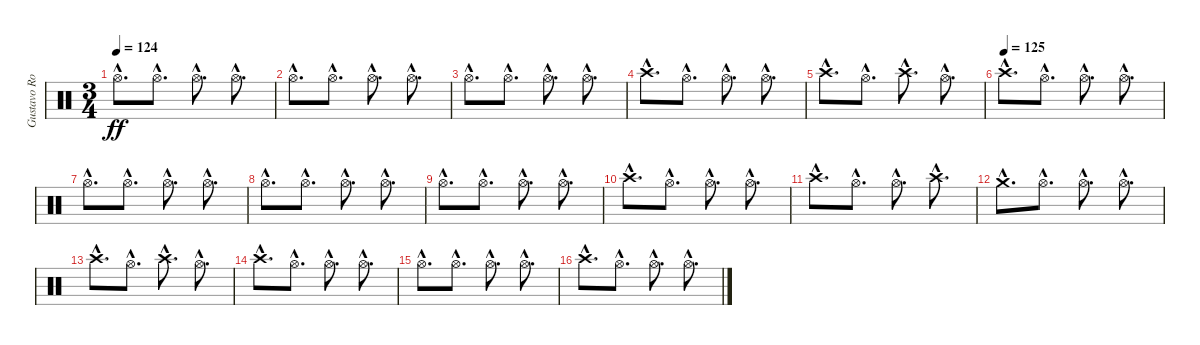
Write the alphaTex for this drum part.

\track ("Gustavo Rowek 1" "Gustavo Ro") {instrument percussion}
\staff {score}
\articulation defaults
\ts (3 4)
\tempo 124
\clef neutral
\ks c "Hi-Hat (open)"{hac}.8{d dy ff} "Hi-Hat (open)"{hac}.8{d} "Hi-Hat (open)"{hac}.8{d} "Hi-Hat (open)"{hac}.8{d}
|
"Hi-Hat (open)"{hac}.8{d} "Hi-Hat (open)"{hac}.8{d} "Hi-Hat (open)"{hac}.8{d} "Hi-Hat (open)"{hac}.8{d} |
"Hi-Hat (open)"{hac}.8{d} "Hi-Hat (open)"{hac}.8{d} "Hi-Hat (open)"{hac}.8{d} "Hi-Hat (open)"{hac}.8{d} |
"Crash high (hit)"{hac}.8{d} "Hi-Hat (open)"{hac}.8{d} "Hi-Hat (open)"{hac}.8{d} "Hi-Hat (open)"{hac}.8{d} |
"Crash high (hit)"{hac}.8{d} "Hi-Hat (open)"{hac}.8{d} "Crash high (hit)"{hac}.8{d} "Hi-Hat (open)"{hac}.8{d} |
\tempo (125)
"Crash high (hit)"{hac}.8{d} "Hi-Hat (open)"{hac}.8{d} "Hi-Hat (open)"{hac}.8{d} "Hi-Hat (open)"{hac}.8{d} |
"Hi-Hat (open)"{hac}.8{d} "Hi-Hat (open)"{hac}.8{d} "Hi-Hat (open)"{hac}.8{d} "Hi-Hat (open)"{hac}.8{d} |
"Hi-Hat (open)"{hac}.8{d} "Hi-Hat (open)"{hac}.8{d} "Hi-Hat (open)"{hac}.8{d} "Hi-Hat (open)"{hac}.8{d} |
"Hi-Hat (open)"{hac}.8{d} "Hi-Hat (open)"{hac}.8{d} "Hi-Hat (open)"{hac}.8{d} "Hi-Hat (open)"{hac}.8{d} |
"Crash high (hit)"{hac}.8{d} "Hi-Hat (open)"{hac}.8{d} "Hi-Hat (open)"{hac}.8{d} "Hi-Hat (open)"{hac}.8{d} |
"Crash high (hit)"{hac}.8{d} "Hi-Hat (open)"{hac}.8{d} "Hi-Hat (open)"{hac}.8{d} "Crash high (hit)"{hac}.8{d} |
"Crash medium (hit)"{hac}.8{d} "Hi-Hat (open)"{hac}.8{d} "Hi-Hat (open)"{hac}.8{d} "Hi-Hat (open)"{hac}.8{d} |
"Crash high (hit)"{hac}.8{d} "Hi-Hat (open)"{hac}.8{d} "Crash high (hit)"{hac}.8{d} "Hi-Hat (open)"{hac}.8{d} |
"Crash high (hit)"{hac}.8{d} "Hi-Hat (open)"{hac}.8{d} "Hi-Hat (open)"{hac}.8{d} "Hi-Hat (open)"{hac}.8{d} |
"Hi-Hat (open)"{hac}.8{d} "Hi-Hat (open)"{hac}.8{d} "Hi-Hat (open)"{hac}.8{d} "Hi-Hat (open)"{hac}.8{d} |
"Crash high (hit)"{hac}.8{d} "Hi-Hat (open)"{hac}.8{d} "Hi-Hat (open)"{hac}.8{d} "Hi-Hat (open)"{hac}.8{d}
